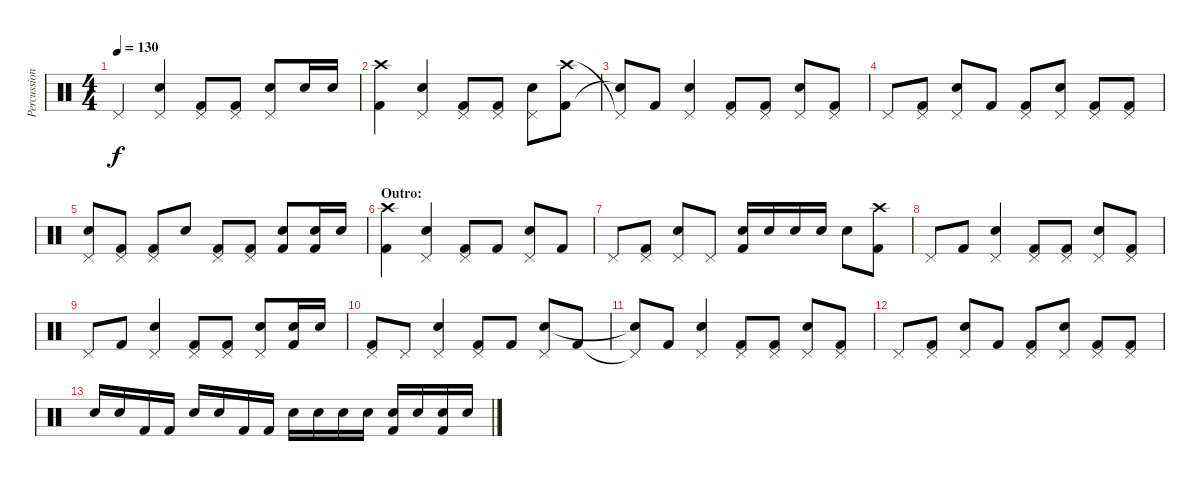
\track ("Percussion" "Percussion") {instrument percussion}
\staff {score}
\articulation defaults
\ts (4 4)
\tempo 130
\clef neutral
\ks c "Pedal Hi-Hat (hit)".4{dy f}
("Pedal Hi-Hat (hit)" "Electric Snare (hit)").4 ("Pedal Hi-Hat (hit)" "Kick (hit) 2").8 ("Pedal Hi-Hat (hit)" "Kick (hit) 2").8 ("Pedal Hi-Hat (hit)" "Electric Snare (hit)").8 "Electric Snare (hit)".16 "Electric Snare (hit)".16 |
("Crash high (hit)" "Kick (hit) 2").4 ("Pedal Hi-Hat (hit)" "Electric Snare (hit)").4 ("Pedal Hi-Hat (hit)" "Kick (hit) 2").8 ("Pedal Hi-Hat (hit)" "Kick (hit) 2").8 ("Pedal Hi-Hat (hit)" "Electric Snare (hit)").8 ("Crash high (hit)" "Kick (hit) 2").8 |
("Pedal Hi-Hat (hit)"{t} "Snare (hit)"{t}).8 "Kick (hit) 2".8 ("Pedal Hi-Hat (hit)" "Electric Snare (hit)").4 ("Pedal Hi-Hat (hit)" "Kick (hit) 2").8 ("Pedal Hi-Hat (hit)" "Kick (hit) 2").8 ("Pedal Hi-Hat (hit)" "Electric Snare (hit)").8 ("Pedal Hi-Hat (hit)" "Kick (hit) 2").8 |
"Pedal Hi-Hat (hit)".8 ("Pedal Hi-Hat (hit)" "Kick (hit) 2").8 ("Pedal Hi-Hat (hit)" "Electric Snare (hit)").8 "Kick (hit) 2".8 ("Pedal Hi-Hat (hit)" "Kick (hit) 2").8 ("Pedal Hi-Hat (hit)" "Electric Snare (hit)").8 ("Pedal Hi-Hat (hit)" "Kick (hit) 2").8 ("Pedal Hi-Hat (hit)" "Kick (hit) 2").8 |
("Pedal Hi-Hat (hit)" "Electric Snare (hit)").8 ("Pedal Hi-Hat (hit)" "Kick (hit) 2").8 ("Pedal Hi-Hat (hit)" "Kick (hit) 2").8 "Electric Snare (hit)".8 ("Pedal Hi-Hat (hit)" "Kick (hit) 2").8 ("Pedal Hi-Hat (hit)" "Kick (hit) 2").8 ("Electric Snare (hit)" "Kick (hit) 2").8 ("Electric Snare (hit)" "Kick (hit) 2").16 "Electric Snare (hit)".16 |
\section ("" "Outro:")
("Crash high (hit)" "Kick (hit) 2").4 ("Pedal Hi-Hat (hit)" "Electric Snare (hit)").4 ("Pedal Hi-Hat (hit)" "Kick (hit) 2").8 "Kick (hit) 2".8 ("Pedal Hi-Hat (hit)" "Electric Snare (hit)").8 "Kick (hit) 2".8 |
"Pedal Hi-Hat (hit)".8 ("Pedal Hi-Hat (hit)" "Kick (hit) 2").8 ("Pedal Hi-Hat (hit)" "Electric Snare (hit)").8 "Pedal Hi-Hat (hit)".8 ("Electric Snare (hit)" "Kick (hit) 2").16 "Electric Snare (hit)".16 "Electric Snare (hit)".16 "Electric Snare (hit)".16 "Electric Snare (hit)".8 ("Crash high (hit)" "Kick (hit) 2").8 |
"Pedal Hi-Hat (hit)".8 "Kick (hit) 2".8 ("Pedal Hi-Hat (hit)" "Electric Snare (hit)").4 ("Pedal Hi-Hat (hit)" "Kick (hit) 2").8 ("Pedal Hi-Hat (hit)" "Kick (hit) 2").8 ("Pedal Hi-Hat (hit)" "Electric Snare (hit)").8 ("Pedal Hi-Hat (hit)" "Kick (hit) 2").8 |
"Pedal Hi-Hat (hit)".8 "Kick (hit) 2".8 ("Pedal Hi-Hat (hit)" "Electric Snare (hit)").4 ("Pedal Hi-Hat (hit)" "Kick (hit) 2").8 ("Pedal Hi-Hat (hit)" "Kick (hit) 2").8 ("Pedal Hi-Hat (hit)" "Electric Snare (hit)").8 ("Electric Snare (hit)" "Kick (hit) 2").16 "Electric Snare (hit)".16 |
("Pedal Hi-Hat (hit)" "Kick (hit) 2").8 "Pedal Hi-Hat (hit)".8 ("Pedal Hi-Hat (hit)" "Electric Snare (hit)").4 ("Pedal Hi-Hat (hit)" "Kick (hit) 2").8 "Kick (hit) 2".8 ("Pedal Hi-Hat (hit)" "Electric Snare (hit)").8 "Kick (hit) 2".8 |
("Pedal Hi-Hat (hit)"{t} "Snare (hit)"{t}).8 "Kick (hit) 2".8 ("Pedal Hi-Hat (hit)" "Electric Snare (hit)").4 ("Pedal Hi-Hat (hit)" "Kick (hit) 2").8 ("Pedal Hi-Hat (hit)" "Kick (hit) 2").8 ("Pedal Hi-Hat (hit)" "Electric Snare (hit)").8 ("Pedal Hi-Hat (hit)" "Kick (hit) 2").8 |
"Pedal Hi-Hat (hit)".8 ("Pedal Hi-Hat (hit)" "Kick (hit) 2").8 ("Pedal Hi-Hat (hit)" "Electric Snare (hit)").8 "Kick (hit) 2".8 ("Pedal Hi-Hat (hit)" "Kick (hit) 2").8 ("Pedal Hi-Hat (hit)" "Electric Snare (hit)").8 ("Pedal Hi-Hat (hit)" "Kick (hit) 2").8 ("Pedal Hi-Hat (hit)" "Kick (hit) 2").8 |
"Electric Snare (hit)".16 "Electric Snare (hit)".16 "Kick (hit) 2".16 "Kick (hit) 2".16 "Electric Snare (hit)".16 "Electric Snare (hit)".16 "Kick (hit) 2".16 "Kick (hit) 2".16 "Electric Snare (hit)".16 "Electric Snare (hit)".16 "Electric Snare (hit)".16 "Electric Snare (hit)".16 ("Electric Snare (hit)" "Kick (hit) 2").16 "Electric Snare (hit)".16 ("Electric Snare (hit)" "Kick (hit) 2").16 "Electric Snare (hit)".16
